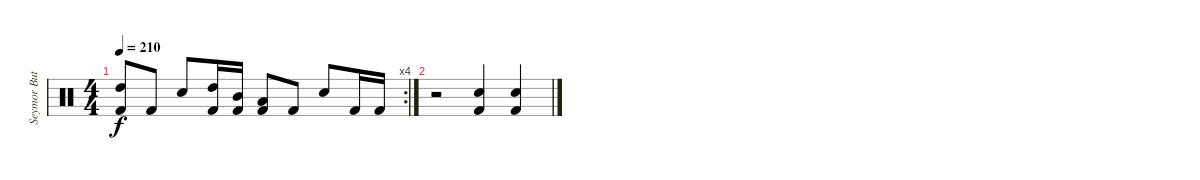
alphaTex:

\track ("Seymor Butts (Drums)" "Seymor But") {instrument percussion}
\staff {score}
\articulation defaults
\rc 4
\ts (4 4)
\tempo 210
\clef neutral
\ks c
("High Tom (hit)" "Kick (hit) 2").8{dy f} "Kick (hit) 2".8 "Snare (hit) 2".8 ("High Tom (hit)" "Kick (hit) 2").16 ("Mid Tom (hit)" "Kick (hit) 2").16 ("Low Tom (hit)" "Kick (hit) 2").8 "Kick (hit) 2".8 "Snare (hit) 2".8 "Kick (hit) 2".16 "Kick (hit) 2".16 |
r.2 ("Kick (hit) 2" "Snare (hit) 2").4 ("Kick (hit) 2" "Snare (hit) 2").4
